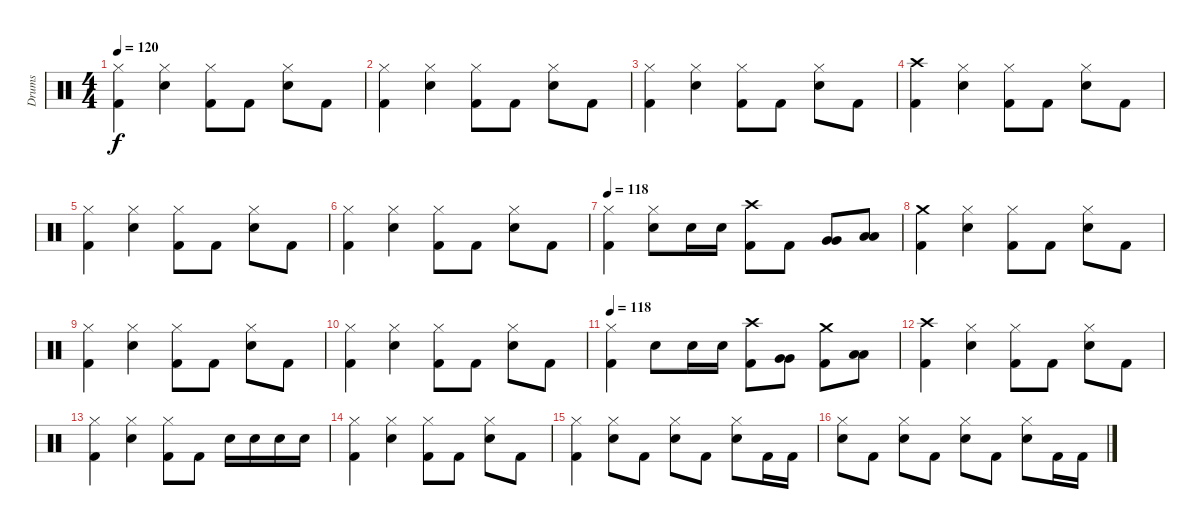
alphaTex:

\track ("Drums" "Drums") {instrument percussion}
\staff {score}
\articulation defaults
\ts (4 4)
\tempo 120
\clef neutral
\ks c
("Hi-Hat (closed)" "Kick (hit) 2").4{dy f} ("Hi-Hat (closed)" "Snare (hit) 2").4 ("Hi-Hat (closed)" "Kick (hit) 2").8 "Kick (hit) 2".8 ("Hi-Hat (closed)" "Snare (hit) 2").8 "Kick (hit) 2".8 |
("Hi-Hat (closed)" "Kick (hit) 2").4 ("Hi-Hat (closed)" "Snare (hit) 2").4 ("Hi-Hat (closed)" "Kick (hit) 2").8 "Kick (hit) 2".8 ("Hi-Hat (closed)" "Snare (hit) 2").8 "Kick (hit) 2".8 |
("Hi-Hat (closed)" "Kick (hit) 2").4 ("Hi-Hat (closed)" "Snare (hit) 2").4 ("Hi-Hat (closed)" "Kick (hit) 2").8 "Kick (hit) 2".8 ("Hi-Hat (closed)" "Snare (hit) 2").8 "Kick (hit) 2".8 |
("Crash high (hit)" "Kick (hit) 2").4 ("Hi-Hat (closed)" "Snare (hit) 2").4 ("Hi-Hat (closed)" "Kick (hit) 2").8 "Kick (hit) 2".8 ("Hi-Hat (closed)" "Snare (hit) 2").8 "Kick (hit) 2".8 |
("Hi-Hat (closed)" "Kick (hit) 2").4 ("Hi-Hat (closed)" "Snare (hit) 2").4 ("Hi-Hat (closed)" "Kick (hit) 2").8 "Kick (hit) 2".8 ("Hi-Hat (closed)" "Snare (hit) 2").8 "Kick (hit) 2".8 |
("Hi-Hat (closed)" "Kick (hit) 2").4 ("Hi-Hat (closed)" "Snare (hit) 2").4 ("Hi-Hat (closed)" "Kick (hit) 2").8 "Kick (hit) 2".8 ("Hi-Hat (closed)" "Snare (hit) 2").8 "Kick (hit) 2".8 |
\tempo 118
("Hi-Hat (closed)" "Kick (hit) 2").4 ("Hi-Hat (closed)" "Snare (hit) 2").8 "Snare (hit) 2".16 "Snare (hit) 2".16 ("Crash high (hit)" "Kick (hit) 2").8 "Kick (hit) 2".8 ("Very Low Tom (hit)" "Very Low Tom (hit)").8 ("Low Floor Tom (hit)" "Low Floor Tom (hit)").8 |
("Crash medium (hit)" "Kick (hit) 2").4 ("Hi-Hat (closed)" "Snare (hit) 2").4 ("Hi-Hat (closed)" "Kick (hit) 2").8 "Kick (hit) 2".8 ("Hi-Hat (closed)" "Snare (hit) 2").8 "Kick (hit) 2".8 |
("Hi-Hat (closed)" "Kick (hit) 2").4 ("Hi-Hat (closed)" "Snare (hit) 2").4 ("Hi-Hat (closed)" "Kick (hit) 2").8 "Kick (hit) 2".8 ("Hi-Hat (closed)" "Snare (hit) 2").8 "Kick (hit) 2".8 |
("Hi-Hat (closed)" "Kick (hit) 2").4 ("Hi-Hat (closed)" "Snare (hit) 2").4 ("Hi-Hat (closed)" "Kick (hit) 2").8 "Kick (hit) 2".8 ("Hi-Hat (closed)" "Snare (hit) 2").8 "Kick (hit) 2".8 |
\tempo 118
("Hi-Hat (closed)" "Kick (hit) 2").4 "Snare (hit) 2".8 "Snare (hit) 2".16 "Snare (hit) 2".16 ("Crash high (hit)" "Kick (hit) 2").8 ("Very Low Tom (hit)" "Very Low Tom (hit)").8 ("Crash medium (hit)" "Kick (hit) 2").8 ("Low Floor Tom (hit)" "Low Floor Tom (hit)").8 |
("Crash high (hit)" "Kick (hit) 2").4 ("Hi-Hat (closed)" "Snare (hit) 2").4 ("Hi-Hat (closed)" "Kick (hit) 2").8 "Kick (hit) 2".8 ("Hi-Hat (closed)" "Snare (hit) 2").8 "Kick (hit) 2".8 |
("Hi-Hat (closed)" "Kick (hit) 2").4 ("Hi-Hat (closed)" "Snare (hit) 2").4 ("Hi-Hat (closed)" "Kick (hit) 2").8 "Kick (hit) 2".8 "Snare (hit) 2".16 "Snare (hit) 2".16 "Snare (hit) 2".16 "Snare (hit) 2".16 |
("Hi-Hat (closed)" "Kick (hit) 2").4 ("Hi-Hat (closed)" "Snare (hit) 2").4 ("Hi-Hat (closed)" "Kick (hit) 2").8 "Kick (hit) 2".8 ("Hi-Hat (closed)" "Snare (hit) 2").8 "Kick (hit) 2".8 |
("Hi-Hat (closed)" "Kick (hit) 2").4 ("Hi-Hat (closed)" "Snare (hit) 2").8 "Kick (hit) 2".8 ("Hi-Hat (closed)" "Snare (hit) 2").8 "Kick (hit) 2".8 ("Hi-Hat (closed)" "Snare (hit) 2").8 "Kick (hit) 2".16 "Kick (hit) 2".16 |
("Hi-Hat (closed)" "Snare (hit) 2").8 "Kick (hit) 2".8 ("Hi-Hat (closed)" "Snare (hit) 2").8 "Kick (hit) 2".8 ("Hi-Hat (closed)" "Snare (hit) 2").8 "Kick (hit) 2".8 ("Hi-Hat (closed)" "Snare (hit) 2").8 "Kick (hit) 2".16 "Kick (hit) 2".16
